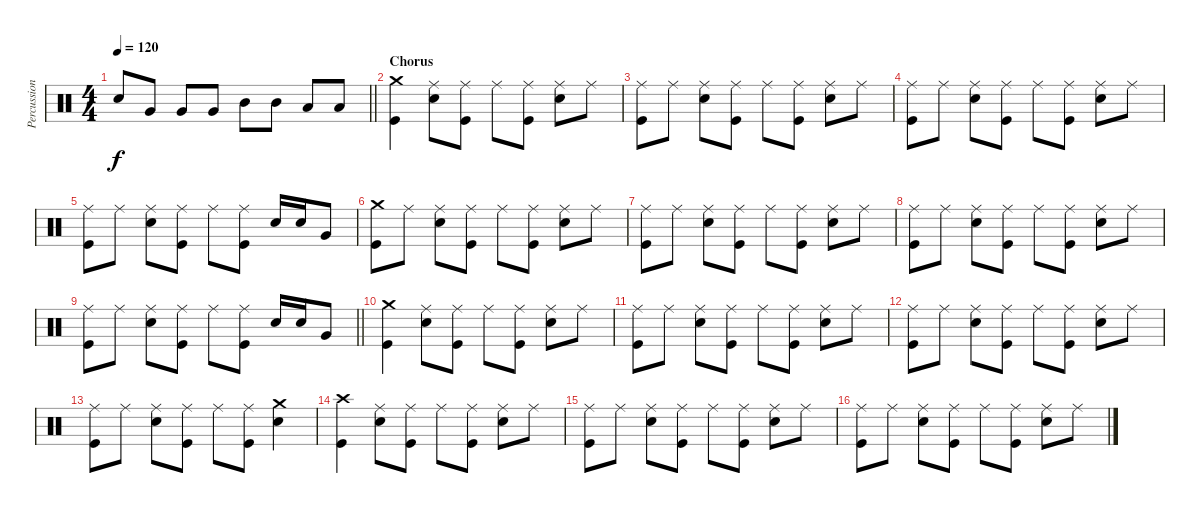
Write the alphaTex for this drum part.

\track ("Percussion" "Percussion") {instrument percussion}
\staff {score}
\articulation defaults
\ts (4 4)
\tempo 120
\clef neutral
\barLineRight lightlight
\ks c "Snare (hit) 2".8{dy f} "Very Low Tom (hit)".8 "Very Low Tom (hit)".8 "Very Low Tom (hit)".8 "Mid Tom (hit)".8 "Mid Tom (hit)".8 "Low Tom (hit)".8 "Low Tom (hit)".8
|
\section ("" "Chorus")
("Kick (hit)" "Crash medium (hit)").4 ("Ride (middle)" "Snare (hit) 2").8 ("Kick (hit)" "Ride (middle)").8 "Ride (middle)".8 ("Kick (hit)" "Ride (middle)").8 ("Ride (middle)" "Snare (hit) 2").8 "Ride (middle)".8 |
("Kick (hit)" "Ride (middle)").8 "Ride (middle)".8 ("Ride (middle)" "Snare (hit) 2").8 ("Kick (hit)" "Ride (middle)").8 "Ride (middle)".8 ("Kick (hit)" "Ride (middle)").8 ("Ride (middle)" "Snare (hit) 2").8 "Ride (middle)".8 |
("Kick (hit)" "Ride (middle)").8 "Ride (middle)".8 ("Ride (middle)" "Snare (hit) 2").8 ("Kick (hit)" "Ride (middle)").8 "Ride (middle)".8 ("Kick (hit)" "Ride (middle)").8 ("Ride (middle)" "Snare (hit) 2").8 "Ride (middle)".8 |
("Kick (hit)" "Ride (middle)").8 "Ride (middle)".8 ("Ride (middle)" "Snare (hit) 2").8 ("Kick (hit)" "Ride (middle)").8 "Ride (middle)".8 ("Kick (hit)" "Ride (middle)").8 "Snare (hit) 2".16 "Snare (hit) 2".16 "Very Low Tom (hit)".8 |
("Kick (hit)" "Crash medium (hit)").8 "Ride (middle)".8 ("Ride (middle)" "Snare (hit) 2").8 ("Kick (hit)" "Ride (middle)").8 "Ride (middle)".8 ("Kick (hit)" "Ride (middle)").8 ("Ride (middle)" "Snare (hit) 2").8 "Ride (middle)".8 |
("Kick (hit)" "Ride (middle)").8 "Ride (middle)".8 ("Ride (middle)" "Snare (hit) 2").8 ("Kick (hit)" "Ride (middle)").8 "Ride (middle)".8 ("Kick (hit)" "Ride (middle)").8 ("Ride (middle)" "Snare (hit) 2").8 "Ride (middle)".8 |
("Kick (hit)" "Ride (middle)").8 "Ride (middle)".8 ("Ride (middle)" "Snare (hit) 2").8 ("Kick (hit)" "Ride (middle)").8 "Ride (middle)".8 ("Kick (hit)" "Ride (middle)").8 ("Ride (middle)" "Snare (hit) 2").8 "Ride (middle)".8 |
\barLineRight lightlight
("Kick (hit)" "Ride (middle)").8 "Ride (middle)".8 ("Ride (middle)" "Snare (hit) 2").8 ("Kick (hit)" "Ride (middle)").8 "Ride (middle)".8 ("Kick (hit)" "Ride (middle)").8 "Snare (hit) 2".16 "Snare (hit) 2".16 "Very Low Tom (hit)".8 |
("Kick (hit)" "Crash medium (hit)").4 ("Ride (middle)" "Snare (hit) 2").8 ("Kick (hit)" "Ride (middle)").8 "Ride (middle)".8 ("Kick (hit)" "Ride (middle)").8 ("Ride (middle)" "Snare (hit) 2").8 "Ride (middle)".8 |
("Kick (hit)" "Ride (middle)").8 "Ride (middle)".8 ("Ride (middle)" "Snare (hit) 2").8 ("Kick (hit)" "Ride (middle)").8 "Ride (middle)".8 ("Kick (hit)" "Ride (middle)").8 ("Ride (middle)" "Snare (hit) 2").8 "Ride (middle)".8 |
("Kick (hit)" "Ride (middle)").8 "Ride (middle)".8 ("Ride (middle)" "Snare (hit) 2").8 ("Kick (hit)" "Ride (middle)").8 "Ride (middle)".8 ("Kick (hit)" "Ride (middle)").8 ("Ride (middle)" "Snare (hit) 2").8 "Ride (middle)".8 |
("Kick (hit)" "Ride (middle)").8 "Ride (middle)".8 ("Ride (middle)" "Snare (hit) 2").8 ("Kick (hit)" "Ride (middle)").8 "Ride (middle)".8 ("Kick (hit)" "Ride (middle)").8 ("Crash medium (hit)" "Snare (hit) 2").4 |
("Kick (hit)" "Crash high (hit)").4 ("Ride (middle)" "Snare (hit) 2").8 ("Kick (hit)" "Ride (middle)").8 "Ride (middle)".8 ("Kick (hit)" "Ride (middle)").8 ("Ride (middle)" "Snare (hit) 2").8 "Ride (middle)".8 |
("Kick (hit)" "Ride (middle)").8 "Ride (middle)".8 ("Ride (middle)" "Snare (hit) 2").8 ("Kick (hit)" "Ride (middle)").8 "Ride (middle)".8 ("Kick (hit)" "Ride (middle)").8 ("Ride (middle)" "Snare (hit) 2").8 "Ride (middle)".8 |
("Kick (hit)" "Ride (middle)").8 "Ride (middle)".8 ("Ride (middle)" "Snare (hit) 2").8 ("Kick (hit)" "Ride (middle)").8 "Ride (middle)".8 ("Kick (hit)" "Ride (middle)").8 ("Ride (middle)" "Snare (hit) 2").8 "Ride (middle)".8
